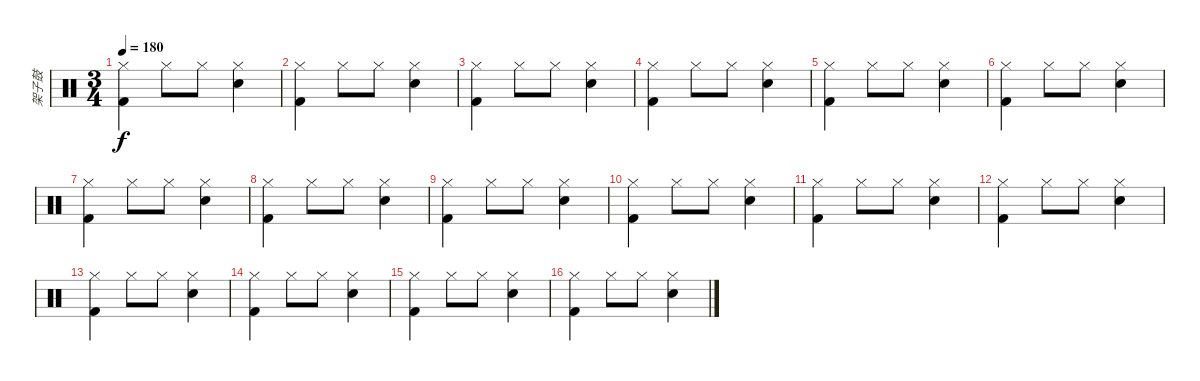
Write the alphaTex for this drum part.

\track ("架子鼓" "架子鼓") {instrument percussion}
\staff {score}
\articulation defaults
\ts (3 4)
\tempo 180
\clef neutral
\ks c
("Hi-Hat (closed)" "Kick (hit) 2").4{dy f} "Hi-Hat (closed)".8 "Hi-Hat (closed)".8 ("Hi-Hat (closed)" "Electric Snare (hit)").4 |
("Hi-Hat (closed)" "Kick (hit) 2").4 "Hi-Hat (closed)".8 "Hi-Hat (closed)".8 ("Hi-Hat (closed)" "Electric Snare (hit)").4 |
("Hi-Hat (closed)" "Kick (hit) 2").4 "Hi-Hat (closed)".8 "Hi-Hat (closed)".8 ("Hi-Hat (closed)" "Electric Snare (hit)").4 |
("Hi-Hat (closed)" "Kick (hit) 2").4 "Hi-Hat (closed)".8 "Hi-Hat (closed)".8 ("Hi-Hat (closed)" "Electric Snare (hit)").4 |
("Hi-Hat (closed)" "Kick (hit) 2").4 "Hi-Hat (closed)".8 "Hi-Hat (closed)".8 ("Hi-Hat (closed)" "Electric Snare (hit)").4 |
("Hi-Hat (closed)" "Kick (hit) 2").4 "Hi-Hat (closed)".8 "Hi-Hat (closed)".8 ("Hi-Hat (closed)" "Electric Snare (hit)").4 |
("Hi-Hat (closed)" "Kick (hit) 2").4 "Hi-Hat (closed)".8 "Hi-Hat (closed)".8 ("Hi-Hat (closed)" "Electric Snare (hit)").4 |
("Hi-Hat (closed)" "Kick (hit) 2").4 "Hi-Hat (closed)".8 "Hi-Hat (closed)".8 ("Hi-Hat (closed)" "Electric Snare (hit)").4 |
("Hi-Hat (closed)" "Kick (hit) 2").4 "Hi-Hat (closed)".8 "Hi-Hat (closed)".8 ("Hi-Hat (closed)" "Electric Snare (hit)").4 |
("Hi-Hat (closed)" "Kick (hit) 2").4 "Hi-Hat (closed)".8 "Hi-Hat (closed)".8 ("Hi-Hat (closed)" "Electric Snare (hit)").4 |
("Hi-Hat (closed)" "Kick (hit) 2").4 "Hi-Hat (closed)".8 "Hi-Hat (closed)".8 ("Hi-Hat (closed)" "Electric Snare (hit)").4 |
("Hi-Hat (closed)" "Kick (hit) 2").4 "Hi-Hat (closed)".8 "Hi-Hat (closed)".8 ("Hi-Hat (closed)" "Electric Snare (hit)").4 |
("Hi-Hat (closed)" "Kick (hit) 2").4 "Hi-Hat (closed)".8 "Hi-Hat (closed)".8 ("Hi-Hat (closed)" "Electric Snare (hit)").4 |
("Hi-Hat (closed)" "Kick (hit) 2").4 "Hi-Hat (closed)".8 "Hi-Hat (closed)".8 ("Hi-Hat (closed)" "Electric Snare (hit)").4 |
("Hi-Hat (closed)" "Kick (hit) 2").4 "Hi-Hat (closed)".8 "Hi-Hat (closed)".8 ("Hi-Hat (closed)" "Electric Snare (hit)").4 |
("Hi-Hat (closed)" "Kick (hit) 2").4 "Hi-Hat (closed)".8 "Hi-Hat (closed)".8 ("Hi-Hat (closed)" "Electric Snare (hit)").4
